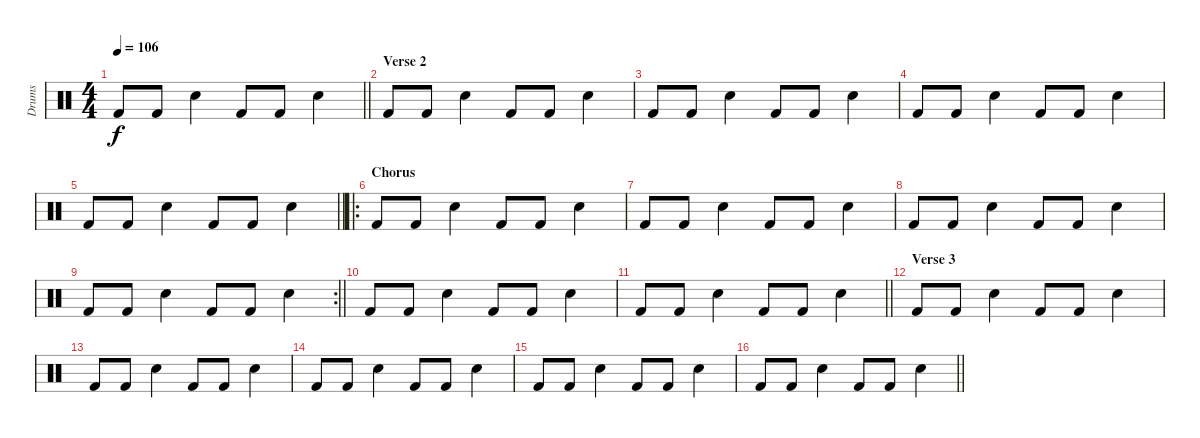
\track ("Drums" "Drums") {instrument percussion}
\staff {score}
\articulation defaults
\ts (4 4)
\tempo 106
\clef neutral
\barLineRight lightlight
\ks c "Kick (hit) 2".8{dy f} "Kick (hit) 2".8 "Snare (hit) 2".4 "Kick (hit) 2".8 "Kick (hit) 2".8 "Snare (hit) 2".4
|
\section ("" "Verse 2")
"Kick (hit) 2".8 "Kick (hit) 2".8 "Snare (hit) 2".4 "Kick (hit) 2".8 "Kick (hit) 2".8 "Snare (hit) 2".4 |
"Kick (hit) 2".8 "Kick (hit) 2".8 "Snare (hit) 2".4 "Kick (hit) 2".8 "Kick (hit) 2".8 "Snare (hit) 2".4 |
"Kick (hit) 2".8 "Kick (hit) 2".8 "Snare (hit) 2".4 "Kick (hit) 2".8 "Kick (hit) 2".8 "Snare (hit) 2".4 |
\barLineRight lightlight "Kick (hit) 2".8 "Kick (hit) 2".8 "Snare (hit) 2".4 "Kick (hit) 2".8 "Kick (hit) 2".8 "Snare (hit) 2".4
|
\ro
\section ("" "Chorus")
"Kick (hit) 2".8 "Kick (hit) 2".8 "Snare (hit) 2".4 "Kick (hit) 2".8 "Kick (hit) 2".8 "Snare (hit) 2".4 |
"Kick (hit) 2".8 "Kick (hit) 2".8 "Snare (hit) 2".4 "Kick (hit) 2".8 "Kick (hit) 2".8 "Snare (hit) 2".4 |
"Kick (hit) 2".8 "Kick (hit) 2".8 "Snare (hit) 2".4 "Kick (hit) 2".8 "Kick (hit) 2".8 "Snare (hit) 2".4 |
\rc 2
\barLineRight lightlight "Kick (hit) 2".8 "Kick (hit) 2".8 "Snare (hit) 2".4 "Kick (hit) 2".8 "Kick (hit) 2".8 "Snare (hit) 2".4
|
"Kick (hit) 2".8 "Kick (hit) 2".8 "Snare (hit) 2".4 "Kick (hit) 2".8 "Kick (hit) 2".8 "Snare (hit) 2".4 |
\barLineRight lightlight "Kick (hit) 2".8 "Kick (hit) 2".8 "Snare (hit) 2".4 "Kick (hit) 2".8 "Kick (hit) 2".8 "Snare (hit) 2".4
|
\section ("" "Verse 3")
"Kick (hit) 2".8 "Kick (hit) 2".8 "Snare (hit) 2".4 "Kick (hit) 2".8 "Kick (hit) 2".8 "Snare (hit) 2".4 |
"Kick (hit) 2".8 "Kick (hit) 2".8 "Snare (hit) 2".4 "Kick (hit) 2".8 "Kick (hit) 2".8 "Snare (hit) 2".4 |
"Kick (hit) 2".8 "Kick (hit) 2".8 "Snare (hit) 2".4 "Kick (hit) 2".8 "Kick (hit) 2".8 "Snare (hit) 2".4 |
"Kick (hit) 2".8 "Kick (hit) 2".8 "Snare (hit) 2".4 "Kick (hit) 2".8 "Kick (hit) 2".8 "Snare (hit) 2".4 |
\barLineRight lightlight "Kick (hit) 2".8 "Kick (hit) 2".8 "Snare (hit) 2".4 "Kick (hit) 2".8 "Kick (hit) 2".8 "Snare (hit) 2".4
